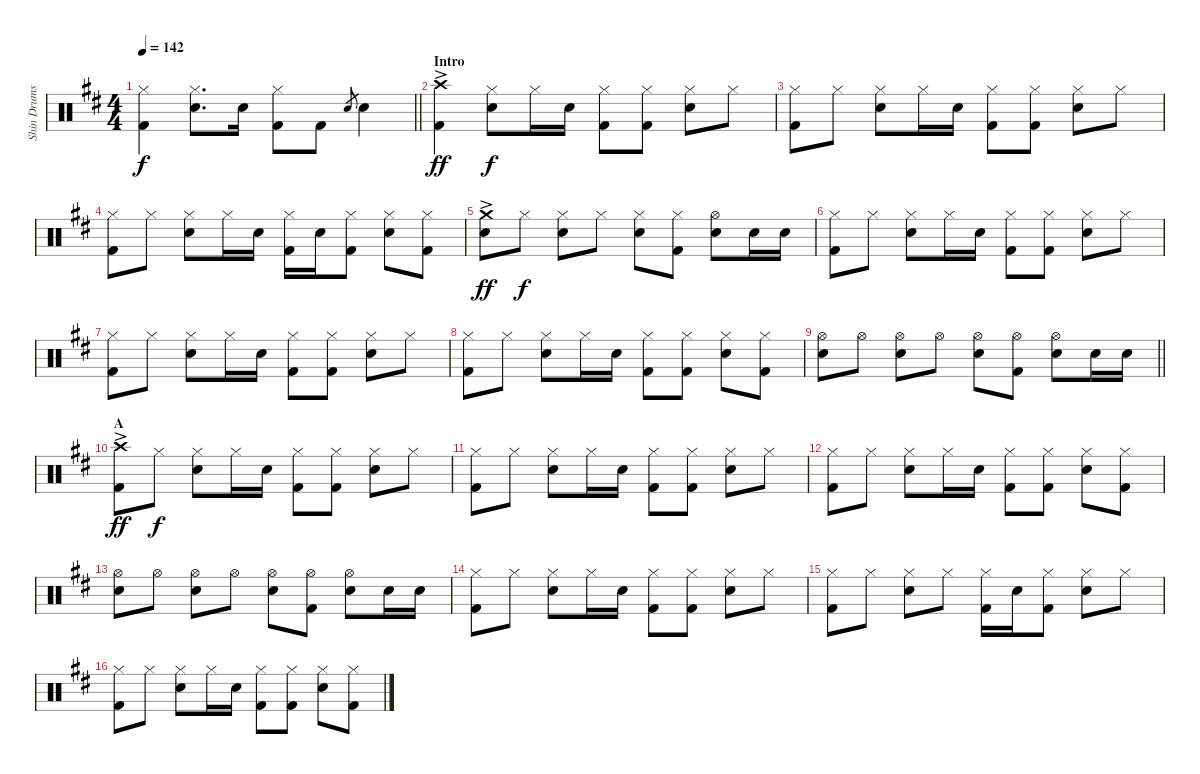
\track ("Shin Drums" "Shin Drums") {instrument percussion}
\staff {score}
\articulation defaults
\ts (4 4)
\tempo 142
\clef neutral
\barLineRight lightlight
\ks d
("Hi-Hat (closed)" "Kick (hit) 2").4{dy f} ("Hi-Hat (closed)" "Snare (hit) 2").8{d} "Snare (hit) 2".16 ("Hi-Hat (closed)" "Kick (hit) 2").8 "Kick (hit) 2".8 "Snare (hit) 2".8{gr} "Snare (hit) 2".4 |
\section ("" "Intro")
("Crash high (hit)"{ac} "Kick (hit) 2").4{dy ff} ("Hi-Hat (closed)" "Snare (hit) 2").8{dy f} "Hi-Hat (closed)".16 "Snare (hit) 2".16 ("Hi-Hat (closed)" "Kick (hit) 2").8 ("Hi-Hat (closed)" "Kick (hit) 2").8 ("Hi-Hat (closed)" "Snare (hit) 2").8 "Hi-Hat (closed)".8 |
("Hi-Hat (closed)" "Kick (hit) 2").8 "Hi-Hat (closed)".8 ("Hi-Hat (closed)" "Snare (hit) 2").8 "Hi-Hat (closed)".16 "Snare (hit) 2".16 ("Hi-Hat (closed)" "Kick (hit) 2").8 ("Hi-Hat (closed)" "Kick (hit) 2").8 ("Hi-Hat (closed)" "Snare (hit) 2").8 "Hi-Hat (closed)".8 |
("Hi-Hat (closed)" "Kick (hit) 2").8 "Hi-Hat (closed)".8 ("Hi-Hat (closed)" "Snare (hit) 2").8 "Hi-Hat (closed)".16 "Snare (hit) 2".16 ("Hi-Hat (closed)" "Kick (hit) 2").16 "Snare (hit) 2".16 ("Hi-Hat (closed)" "Kick (hit) 2").8 ("Hi-Hat (closed)" "Snare (hit) 2").8 ("Hi-Hat (closed)" "Kick (hit) 2").8 |
("Crash medium (hit)"{ac} "Snare (hit) 2").8{dy ff} "Hi-Hat (closed)".8{dy f} ("Hi-Hat (closed)" "Snare (hit) 2").8 "Hi-Hat (closed)".8 ("Hi-Hat (closed)" "Snare (hit) 2").8 ("Hi-Hat (closed)" "Kick (hit) 2").8 ("Hi-Hat (open)" "Snare (hit) 2").8 "Snare (hit) 2".16 "Snare (hit) 2".16 |
("Hi-Hat (closed)" "Kick (hit) 2").8 "Hi-Hat (closed)".8 ("Hi-Hat (closed)" "Snare (hit) 2").8 "Hi-Hat (closed)".16 "Snare (hit) 2".16 ("Hi-Hat (closed)" "Kick (hit) 2").8 ("Hi-Hat (closed)" "Kick (hit) 2").8 ("Hi-Hat (closed)" "Snare (hit) 2").8 "Hi-Hat (closed)".8 |
("Hi-Hat (closed)" "Kick (hit) 2").8 "Hi-Hat (closed)".8 ("Hi-Hat (closed)" "Snare (hit) 2").8 "Hi-Hat (closed)".16 "Snare (hit) 2".16 ("Hi-Hat (closed)" "Kick (hit) 2").8 ("Hi-Hat (closed)" "Kick (hit) 2").8 ("Hi-Hat (closed)" "Snare (hit) 2").8 "Hi-Hat (closed)".8 |
("Hi-Hat (closed)" "Kick (hit) 2").8 "Hi-Hat (closed)".8 ("Hi-Hat (closed)" "Snare (hit) 2").8 "Hi-Hat (closed)".16 "Snare (hit) 2".16 ("Hi-Hat (closed)" "Kick (hit) 2").8 ("Hi-Hat (closed)" "Kick (hit) 2").8 ("Hi-Hat (closed)" "Snare (hit) 2").8 ("Hi-Hat (closed)" "Kick (hit) 2").8 |
\barLineRight lightlight
("Hi-Hat (open)" "Snare (hit) 2").8 "Hi-Hat (open)".8 ("Hi-Hat (open)" "Snare (hit) 2").8 "Hi-Hat (open)".8 ("Hi-Hat (open)" "Snare (hit) 2").8 ("Hi-Hat (open)" "Kick (hit) 2").8 ("Hi-Hat (open)" "Snare (hit) 2").8 "Snare (hit) 2".16 "Snare (hit) 2".16 |
\section ("" "A")
("Crash high (hit)"{ac} "Kick (hit) 2").8{dy ff} "Hi-Hat (closed)".8{dy f} ("Hi-Hat (closed)" "Snare (hit) 2").8 "Hi-Hat (closed)".16 "Snare (hit) 2".16 ("Hi-Hat (closed)" "Kick (hit) 2").8 ("Hi-Hat (closed)" "Kick (hit) 2").8 ("Hi-Hat (closed)" "Snare (hit) 2").8 "Hi-Hat (closed)".8 |
("Hi-Hat (closed)" "Kick (hit) 2").8 "Hi-Hat (closed)".8 ("Hi-Hat (closed)" "Snare (hit) 2").8 "Hi-Hat (closed)".16 "Snare (hit) 2".16 ("Hi-Hat (closed)" "Kick (hit) 2").8 ("Hi-Hat (closed)" "Kick (hit) 2").8 ("Hi-Hat (closed)" "Snare (hit) 2").8 "Hi-Hat (closed)".8 |
("Hi-Hat (closed)" "Kick (hit) 2").8 "Hi-Hat (closed)".8 ("Hi-Hat (closed)" "Snare (hit) 2").8 "Hi-Hat (closed)".16 "Snare (hit) 2".16 ("Hi-Hat (closed)" "Kick (hit) 2").8 ("Hi-Hat (closed)" "Kick (hit) 2").8 ("Hi-Hat (closed)" "Snare (hit) 2").8 ("Hi-Hat (closed)" "Kick (hit) 2").8 |
("Hi-Hat (open)" "Snare (hit) 2").8 "Hi-Hat (open)".8 ("Hi-Hat (open)" "Snare (hit) 2").8 "Hi-Hat (open)".8 ("Hi-Hat (open)" "Snare (hit) 2").8 ("Hi-Hat (open)" "Kick (hit) 2").8 ("Hi-Hat (open)" "Snare (hit) 2").8 "Snare (hit) 2".16 "Snare (hit) 2".16 |
("Hi-Hat (closed)" "Kick (hit) 2").8 "Hi-Hat (closed)".8 ("Hi-Hat (closed)" "Snare (hit) 2").8 "Hi-Hat (closed)".16 "Snare (hit) 2".16 ("Hi-Hat (closed)" "Kick (hit) 2").8 ("Hi-Hat (closed)" "Kick (hit) 2").8 ("Hi-Hat (closed)" "Snare (hit) 2").8 "Hi-Hat (closed)".8 |
("Hi-Hat (closed)" "Kick (hit) 2").8 "Hi-Hat (closed)".8 ("Hi-Hat (closed)" "Snare (hit) 2").8 "Hi-Hat (closed)".8 ("Hi-Hat (closed)" "Kick (hit) 2").16 "Snare (hit) 2".16 ("Hi-Hat (closed)" "Kick (hit) 2").8 ("Hi-Hat (closed)" "Snare (hit) 2").8 "Hi-Hat (closed)".8 |
("Hi-Hat (closed)" "Kick (hit) 2").8 "Hi-Hat (closed)".8 ("Hi-Hat (closed)" "Snare (hit) 2").8 "Hi-Hat (closed)".16 "Snare (hit) 2".16 ("Hi-Hat (closed)" "Kick (hit) 2").8 ("Hi-Hat (closed)" "Kick (hit) 2").8 ("Hi-Hat (closed)" "Snare (hit) 2").8 ("Hi-Hat (closed)" "Kick (hit) 2").8
